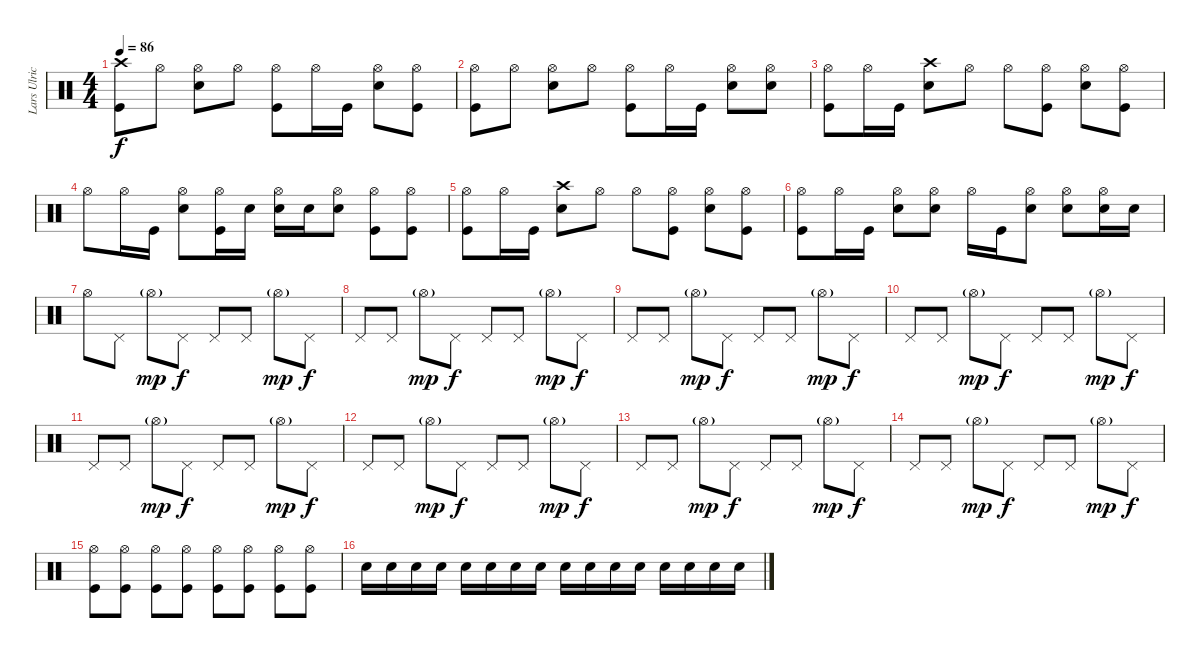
\track ("Lars Ulrich" "Lars Ulric") {instrument percussion}
\staff {score}
\articulation defaults
\ts (4 4)
\tempo 86
\clef neutral
\ks c
("Crash high (hit)" "Kick (hit)").8{dy f} "Hi-Hat (open)".8 ("Hi-Hat (open)" "Snare (hit) 2").8 "Hi-Hat (open)".8 ("Hi-Hat (open)" "Kick (hit)").8 "Hi-Hat (open)".16 "Kick (hit)".16 ("Hi-Hat (open)" "Snare (hit) 2").8 ("Hi-Hat (open)" "Kick (hit)").8 |
("Hi-Hat (open)" "Kick (hit)").8 "Hi-Hat (open)".8 ("Hi-Hat (open)" "Snare (hit) 2").8 "Hi-Hat (open)".8 ("Hi-Hat (open)" "Kick (hit)").8 "Hi-Hat (open)".16 "Kick (hit)".16 ("Hi-Hat (open)" "Snare (hit) 2").8 ("Hi-Hat (open)" "Snare (hit) 2").8 |
("Hi-Hat (open)" "Kick (hit)").8 "Hi-Hat (open)".16 "Kick (hit)".16 ("Crash high (hit)" "Snare (hit) 2").8 "Hi-Hat (open)".8 "Hi-Hat (open)".8 ("Hi-Hat (open)" "Kick (hit)").8 ("Hi-Hat (open)" "Snare (hit) 2").8 ("Hi-Hat (open)" "Kick (hit)").8 |
"Hi-Hat (open)".8 "Hi-Hat (open)".16 "Kick (hit)".16 ("Hi-Hat (open)" "Snare (hit) 2").8 ("Hi-Hat (open)" "Kick (hit)").16 "Snare (hit) 2".16 ("Hi-Hat (open)" "Snare (hit) 2").16 "Snare (hit) 2".16 ("Hi-Hat (open)" "Snare (hit) 2").8 ("Hi-Hat (open)" "Kick (hit)").8 ("Hi-Hat (open)" "Kick (hit)").8 |
("Hi-Hat (open)" "Kick (hit)").8 "Hi-Hat (open)".16 "Kick (hit)".16 ("Crash high (hit)" "Snare (hit) 2").8 "Hi-Hat (open)".8 "Hi-Hat (open)".8 ("Hi-Hat (open)" "Kick (hit)").8 ("Hi-Hat (open)" "Snare (hit) 2").8 ("Hi-Hat (open)" "Kick (hit)").8 |
("Hi-Hat (open)" "Kick (hit)").8 "Hi-Hat (open)".16 "Kick (hit)".16 ("Hi-Hat (open)" "Snare (hit) 2").8 ("Hi-Hat (open)" "Snare (hit) 2").8 "Hi-Hat (open)".16 "Kick (hit)".16 ("Hi-Hat (open)" "Snare (hit) 2").8 ("Hi-Hat (open)" "Snare (hit) 2").8 ("Hi-Hat (open)" "Snare (hit) 2").16 "Snare (hit) 2".16 |
"Hi-Hat (open)".8 "Pedal Hi-Hat (hit)".8 "Hi-Hat (open)"{g}.8{dy mp} "Pedal Hi-Hat (hit)".8{dy f} "Pedal Hi-Hat (hit)".8 "Pedal Hi-Hat (hit)".8 "Hi-Hat (open)"{g}.8{dy mp} "Pedal Hi-Hat (hit)".8{dy f} |
"Pedal Hi-Hat (hit)".8 "Pedal Hi-Hat (hit)".8 "Hi-Hat (open)"{g}.8{dy mp} "Pedal Hi-Hat (hit)".8{dy f} "Pedal Hi-Hat (hit)".8 "Pedal Hi-Hat (hit)".8 "Hi-Hat (open)"{g}.8{dy mp} "Pedal Hi-Hat (hit)".8{dy f} |
"Pedal Hi-Hat (hit)".8 "Pedal Hi-Hat (hit)".8 "Hi-Hat (open)"{g}.8{dy mp} "Pedal Hi-Hat (hit)".8{dy f} "Pedal Hi-Hat (hit)".8 "Pedal Hi-Hat (hit)".8 "Hi-Hat (open)"{g}.8{dy mp} "Pedal Hi-Hat (hit)".8{dy f} |
"Pedal Hi-Hat (hit)".8 "Pedal Hi-Hat (hit)".8 "Hi-Hat (open)"{g}.8{dy mp} "Pedal Hi-Hat (hit)".8{dy f} "Pedal Hi-Hat (hit)".8 "Pedal Hi-Hat (hit)".8 "Hi-Hat (open)"{g}.8{dy mp} "Pedal Hi-Hat (hit)".8{dy f} |
"Pedal Hi-Hat (hit)".8 "Pedal Hi-Hat (hit)".8 "Hi-Hat (open)"{g}.8{dy mp} "Pedal Hi-Hat (hit)".8{dy f} "Pedal Hi-Hat (hit)".8 "Pedal Hi-Hat (hit)".8 "Hi-Hat (open)"{g}.8{dy mp} "Pedal Hi-Hat (hit)".8{dy f} |
"Pedal Hi-Hat (hit)".8 "Pedal Hi-Hat (hit)".8 "Hi-Hat (open)"{g}.8{dy mp} "Pedal Hi-Hat (hit)".8{dy f} "Pedal Hi-Hat (hit)".8 "Pedal Hi-Hat (hit)".8 "Hi-Hat (open)"{g}.8{dy mp} "Pedal Hi-Hat (hit)".8{dy f} |
"Pedal Hi-Hat (hit)".8 "Pedal Hi-Hat (hit)".8 "Hi-Hat (open)"{g}.8{dy mp} "Pedal Hi-Hat (hit)".8{dy f} "Pedal Hi-Hat (hit)".8 "Pedal Hi-Hat (hit)".8 "Hi-Hat (open)"{g}.8{dy mp} "Pedal Hi-Hat (hit)".8{dy f} |
"Pedal Hi-Hat (hit)".8 "Pedal Hi-Hat (hit)".8 "Hi-Hat (open)"{g}.8{dy mp} "Pedal Hi-Hat (hit)".8{dy f} "Pedal Hi-Hat (hit)".8 "Pedal Hi-Hat (hit)".8 "Hi-Hat (open)"{g}.8{dy mp} "Pedal Hi-Hat (hit)".8{dy f} |
("Hi-Hat (open)" "Kick (hit)").8 ("Hi-Hat (open)" "Kick (hit)").8 ("Hi-Hat (open)" "Kick (hit)").8 ("Hi-Hat (open)" "Kick (hit)").8 ("Hi-Hat (open)" "Kick (hit)").8 ("Hi-Hat (open)" "Kick (hit)").8 ("Hi-Hat (open)" "Kick (hit)").8 ("Hi-Hat (open)" "Kick (hit)").8 |
"Snare (hit) 2".16 "Snare (hit) 2".16 "Snare (hit) 2".16 "Snare (hit) 2".16 "Snare (hit) 2".16 "Snare (hit) 2".16 "Snare (hit) 2".16 "Snare (hit) 2".16 "Snare (hit) 2".16 "Snare (hit) 2".16 "Snare (hit) 2".16 "Snare (hit) 2".16 "Snare (hit) 2".16 "Snare (hit) 2".16 "Snare (hit) 2".16 "Snare (hit) 2".16
